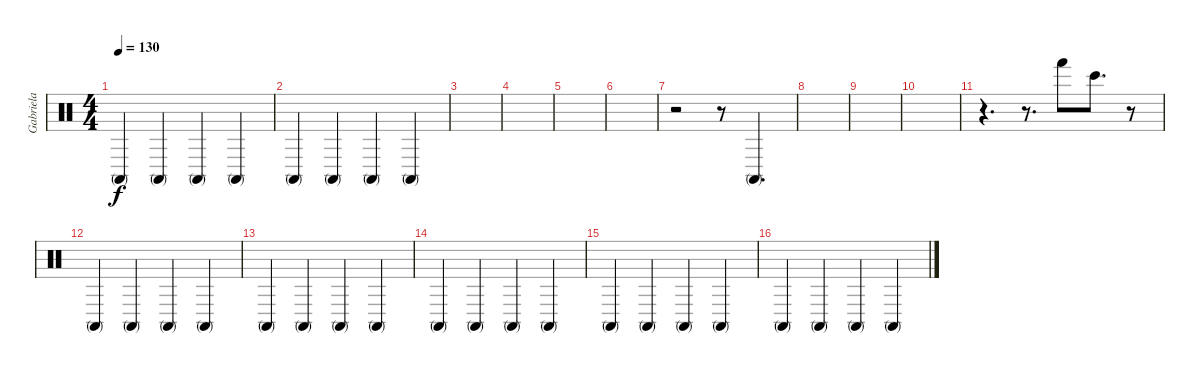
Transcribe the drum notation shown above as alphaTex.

\track ("Gabriela " "Gabriela ") {instrument percussion}
\staff {score}
\articulation defaults
\ts (4 4)
\tempo 130
\clef neutral
\ks c "Conga high (mute)".4{dy f} "Conga high (mute)".4 "Conga high (mute)".4 "Conga high (mute)".4
|
"Conga high (mute)".4 "Conga high (mute)".4 "Conga high (mute)".4 "Conga high (mute)".4 |
|
|
|
|
r.2 r.8 "Conga high (mute)".4{d} |
|
|
|
r.4{d} r.8{d} "Hand (hit)".8 "Bongo High (hit)".8{d} r.8 |
"Conga high (mute)".4 "Conga high (mute)".4 "Conga high (mute)".4 "Conga high (mute)".4 |
"Conga high (mute)".4 "Conga high (mute)".4 "Conga high (mute)".4 "Conga high (mute)".4 |
"Conga high (mute)".4 "Conga high (mute)".4 "Conga high (mute)".4 "Conga high (mute)".4 |
"Conga high (mute)".4 "Conga high (mute)".4 "Conga high (mute)".4 "Conga high (mute)".4 |
"Conga high (mute)".4 "Conga high (mute)".4 "Conga high (mute)".4 "Conga high (mute)".4
